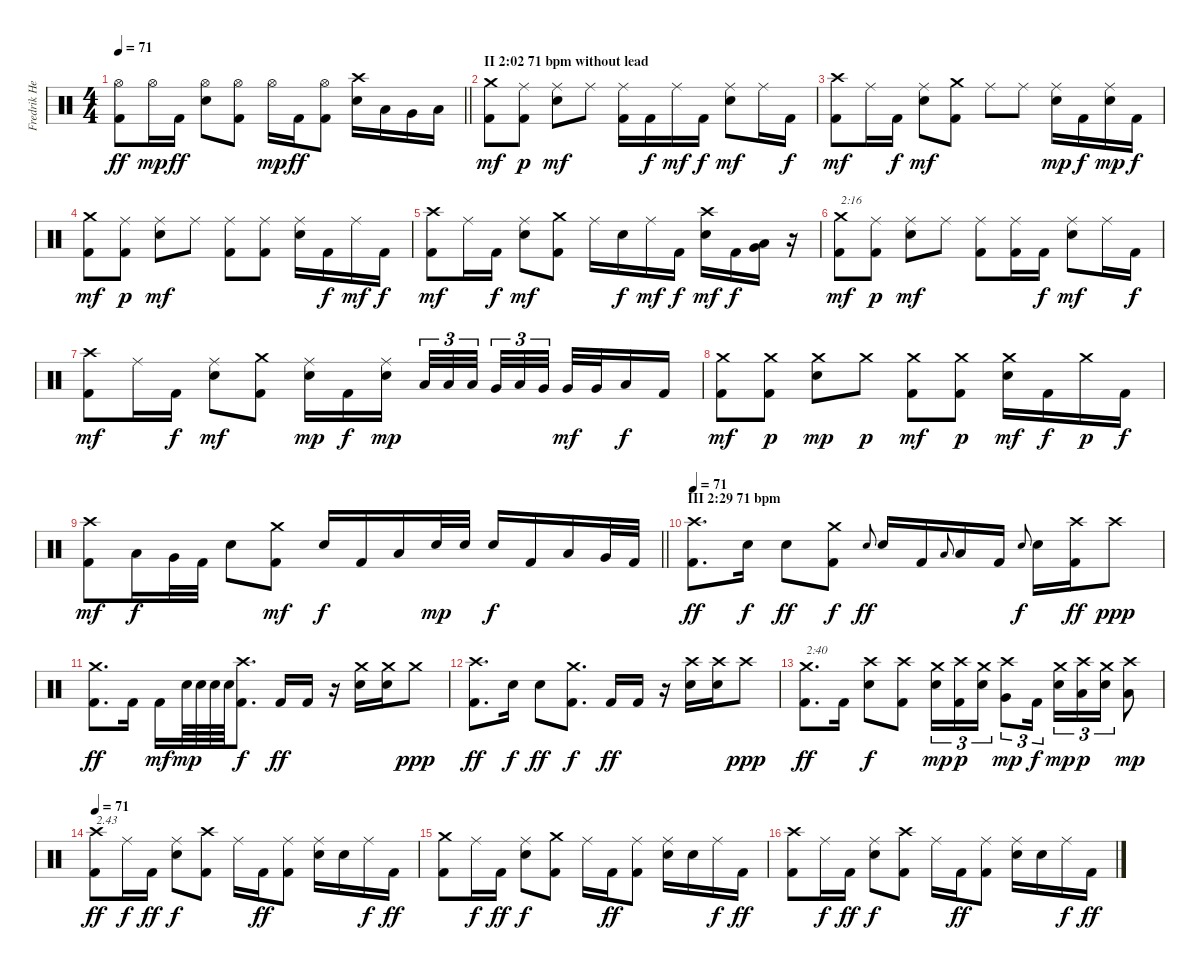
\track ("Fredrik Hellerström (Drums)" "Fredrik He") {instrument percussion}
\staff
\articulation defaults
\ts (4 4)
\tempo 71
\clef neutral
\barLineRight lightlight
\ks c
("Hi-Hat (open)" "Kick (hit) 2").8{dy ff} "Hi-Hat (open)".16{dy mp} "Kick (hit) 2".16{dy ff} ("Hi-Hat (open)" "Electric Snare (hit)").8 ("Hi-Hat (open)" "Kick (hit) 2").8 "Hi-Hat (open)".16{dy mp} "Kick (hit) 2".16{dy ff} ("Hi-Hat (open)" "Kick (hit) 2").8 ("Crash high (hit)" "Electric Snare (hit)").16 "Low Tom (hit)".16 "Very Low Tom (hit)".16 "Low Floor Tom (hit)".16 |
\section ("" "II 2:02 71 bpm without lead")
("Crash medium (hit)" "Kick (hit) 2").8{dy mf} ("Ride (middle)" "Kick (hit) 2").8{dy p} ("Ride (middle)" "Electric Snare (hit)").8{dy mf} "Ride (middle)".8 ("Ride (middle)" "Kick (hit) 2").16 "Kick (hit) 2".16{dy f} "Ride (middle)".16{dy mf} "Kick (hit) 2".16{dy f} ("Ride (middle)" "Electric Snare (hit)").8{dy mf} "Ride (middle)".16 "Kick (hit) 2".16{dy f} |
("Crash high (hit)" "Kick (hit) 2").8{dy mf} "Ride (middle)".16 "Kick (hit) 2".16{dy f} ("Ride (middle)" "Electric Snare (hit)").8{dy mf} ("Crash medium (hit)" "Kick (hit) 2").8 "Ride (middle)".8 "Ride (middle)".8 ("Ride (middle)" "Electric Snare (hit)").16{dy mp} "Kick (hit) 2".16{dy f} ("Ride (middle)" "Electric Snare (hit)").16{dy mp} "Kick (hit) 2".16{dy f} |
("Crash medium (hit)" "Kick (hit) 2").8{dy mf} ("Ride (middle)" "Kick (hit) 2").8{dy p} ("Ride (middle)" "Electric Snare (hit)").8{dy mf} "Ride (middle)".8 ("Ride (middle)" "Kick (hit) 2").8 ("Ride (middle)" "Kick (hit) 2").8 ("Ride (middle)" "Electric Snare (hit)").16 "Kick (hit) 2".16{dy f} "Ride (middle)".16{dy mf} "Kick (hit) 2".16{dy f} |
("Crash high (hit)" "Kick (hit) 2").8{dy mf} "Ride (middle)".16 "Kick (hit) 2".16{dy f} ("Ride (middle)" "Electric Snare (hit)").8{dy mf} ("Crash medium (hit)" "Kick (hit) 2").8 "Ride (middle)".16 "Electric Snare (hit)".16{dy f} "Ride (middle)".16{dy mf} "Kick (hit) 2".16{dy f} ("Crash high (hit)" "Electric Snare (hit)").16{dy mf} "Kick (hit) 2".16{dy f} ("Low Tom (hit)" "Very Low Tom (hit)").16 r.16 |
("Crash medium (hit)" "Kick (hit) 2").8{txt "2:16" dy mf} ("Ride (middle)" "Kick (hit) 2").8{dy p} ("Ride (middle)" "Electric Snare (hit)").8{dy mf} "Ride (middle)".8 ("Ride (middle)" "Kick (hit) 2").8 ("Ride (middle)" "Kick (hit) 2").16 "Kick (hit) 2".16{dy f} ("Ride (middle)" "Electric Snare (hit)").8{dy mf} "Ride (middle)".16 "Kick (hit) 2".16{dy f} |
("Crash high (hit)" "Kick (hit) 2").8{dy mf} "Ride (middle)".16 "Kick (hit) 2".16{dy f} ("Ride (middle)" "Electric Snare (hit)").8{dy mf} ("Crash medium (hit)" "Kick (hit) 2").8 ("Ride (middle)" "Electric Snare (hit)").16{dy mp} "Kick (hit) 2".16{dy f} ("Ride (middle)" "Electric Snare (hit)").16{dy mp beam splitsecondary} "Low Tom (hit)".32{tu (3 2)} "Low Tom (hit)".32{tu (3 2)} "Low Tom (hit)".32{tu (3 2)} "Very Low Tom (hit)".32{tu (3 2)} "Low Tom (hit)".32{tu (3 2)} "Very Low Tom (hit)".32{tu (3 2) beam splitsecondary} "Very Low Tom (hit)".32{dy mf} "Very Low Tom (hit)".32 "Low Floor Tom (hit)".16{dy f} "Kick (hit) 2".16 |
("Crash medium (hit)" "Kick (hit) 2").8{dy mf} ("Crash medium (hit)" "Kick (hit) 2").8{dy p} ("Crash medium (hit)" "Electric Snare (hit)").8{dy mp} "Crash medium (hit)".8{dy p} ("Crash medium (hit)" "Kick (hit) 2").8{dy mf} ("Crash medium (hit)" "Kick (hit) 2").8{dy p} ("Crash medium (hit)" "Electric Snare (hit)").16{dy mf} "Kick (hit) 2".16{dy f} "Crash medium (hit)".16{dy p} "Kick (hit) 2".16{dy f} |
\barLineRight lightlight
("Crash high (hit)" "Kick (hit) 2").8{dy mf} "Low Tom (hit)".16{dy f} "Very Low Tom (hit)".32 "Kick (hit) 2".32 "Electric Snare (hit)".8 ("Crash medium (hit)" "Kick (hit) 2").8{dy mf} "Electric Snare (hit)".16{dy f} "Kick (hit) 2".16 "Low Tom (hit)".16 "Electric Snare (hit)".32{dy mp} "Electric Snare (hit)".32 "Electric Snare (hit)".16{dy f} "Kick (hit) 2".16 "Low Tom (hit)".16 "Very Low Tom (hit)".32 "Kick (hit) 2".32 |
\section ("" "III 2:29 71 bpm")
\tempo 71
("Crash high (hit)" "Kick (hit) 2").8{d dy ff} "Electric Snare (hit)".16{dy f} "Electric Snare (hit)".8{dy ff} ("Crash medium (hit)" "Kick (hit) 2").8{dy f} "Electric Snare (hit)".8{gr onbeat dy ff} "Electric Snare (hit)".16 "Kick (hit) 2".16 "Low Tom (hit)".8{gr onbeat} "Low Tom (hit)".16 "Kick (hit) 2".16 "Electric Snare (hit)".8{gr onbeat dy f} "Electric Snare (hit)".16 ("Crash high (hit)" "Kick (hit) 2").16{dy ff} "Crash high (hit)".8{dy ppp} |
("Crash medium (hit)" "Kick (hit) 2").8{d dy ff} "Kick (hit) 2".16 "Kick (hit) 2".16{dy mf} "Electric Snare (hit)".64{dy mp} "Electric Snare (hit)".64 "Electric Snare (hit)".64 "Electric Snare (hit)".64 ("Crash high (hit)" "Kick (hit) 2").8{d dy f} "Kick (hit) 2".16{dy ff} "Kick (hit) 2".16 r.16 ("Crash medium (hit)" "Electric Snare (hit)").16 ("Crash medium (hit)" "Electric Snare (hit)").16 "Crash medium (hit)".8{dy ppp} |
("Crash high (hit)" "Kick (hit) 2").8{d dy ff} "Electric Snare (hit)".16{dy f} "Electric Snare (hit)".8{dy ff} ("Crash medium (hit)" "Kick (hit) 2").8{d dy f} "Kick (hit) 2".16{dy ff} "Kick (hit) 2".16 r.16 ("Crash high (hit)" "Electric Snare (hit)").16 ("Crash high (hit)" "Electric Snare (hit)").16 "Crash high (hit)".8{dy ppp} |
("Crash medium (hit)" "Kick (hit) 2").8{d txt "2:40" dy ff} "Kick (hit) 2".16 ("Crash high (hit)" "Electric Snare (hit)").8{dy f} ("Crash high (hit)" "Kick (hit) 2").8 ("Crash medium (hit)" "Electric Snare (hit)").16{tu (3 2) dy mp} ("Crash high (hit)" "Kick (hit) 2").16{tu (3 2) dy p} ("Crash medium (hit)" "Electric Snare (hit)").16{tu (3 2)} ("Crash high (hit)" "Very Low Tom (hit)").8{tu (3 2) dy mp} "Kick (hit) 2".16{tu (3 2) dy f} ("Crash medium (hit)" "Electric Snare (hit)").16{tu (3 2) dy mp} ("Crash high (hit)" "Low Floor Tom (hit)").16{tu (3 2) dy p} ("Crash medium (hit)" "Electric Snare (hit)").16{tu (3 2)} ("Crash high (hit)" "Low Floor Tom (hit)").8{dy mp} |
\tempo 71
("Crash high (hit)" "Kick (hit) 2").8{txt "2.43" dy ff} "Ride (middle)".16{dy f} "Kick (hit) 2".16{dy ff} ("Ride (middle)" "Electric Snare (hit)").8{dy f} ("Crash high (hit)" "Kick (hit) 2").8 "Ride (middle)".16 "Kick (hit) 2".16{dy ff} ("Ride (middle)" "Kick (hit) 2").8 ("Ride (middle)" "Electric Snare (hit)").16 "Electric Snare (hit)".16 "Ride (middle)".16{dy f} "Kick (hit) 2".16{dy ff} |
("Crash medium (hit)" "Kick (hit) 2").8 "Ride (middle)".16{dy f} "Kick (hit) 2".16{dy ff} ("Ride (middle)" "Electric Snare (hit)").8{dy f} ("Crash medium (hit)" "Kick (hit) 2").8 "Ride (middle)".16 "Kick (hit) 2".16{dy ff} ("Ride (middle)" "Kick (hit) 2").8 ("Ride (middle)" "Electric Snare (hit)").16 "Electric Snare (hit)".16 "Ride (middle)".16{dy f} "Kick (hit) 2".16{dy ff} |
("Crash high (hit)" "Kick (hit) 2").8 "Ride (middle)".16{dy f} "Kick (hit) 2".16{dy ff} ("Ride (middle)" "Electric Snare (hit)").8{dy f} ("Crash high (hit)" "Kick (hit) 2").8 "Ride (middle)".16 "Kick (hit) 2".16{dy ff} ("Ride (middle)" "Kick (hit) 2").8 ("Ride (middle)" "Electric Snare (hit)").16 "Electric Snare (hit)".16 "Ride (middle)".16{dy f} "Kick (hit) 2".16{dy ff}
